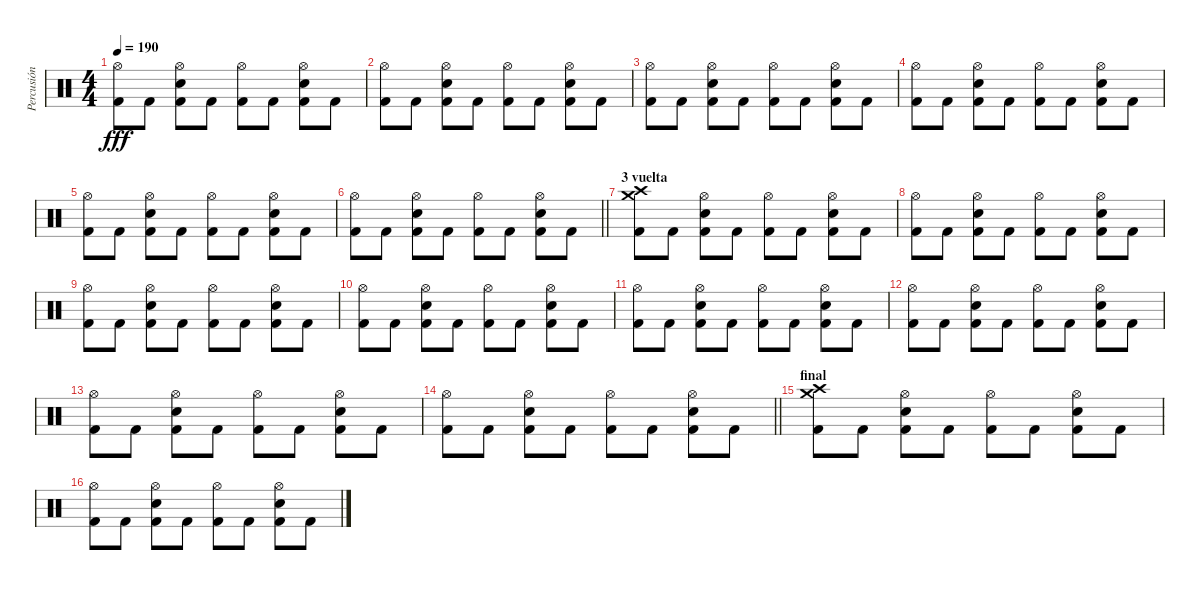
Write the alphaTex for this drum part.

\track ("Percusión" "Percusión") {instrument percussion}
\staff {score}
\articulation defaults
\ts (4 4)
\tempo 190
\clef neutral
\ks c
("Hi-Hat (open)" "Kick (hit) 2").8{dy fff} "Kick (hit) 2".8 ("Hi-Hat (open)" "Electric Snare (hit)" "Kick (hit) 2").8 "Kick (hit) 2".8 ("Hi-Hat (open)" "Kick (hit) 2").8 "Kick (hit) 2".8 ("Hi-Hat (open)" "Electric Snare (hit)" "Kick (hit) 2").8 "Kick (hit) 2".8 |
("Hi-Hat (open)" "Kick (hit) 2").8 "Kick (hit) 2".8 ("Hi-Hat (open)" "Electric Snare (hit)" "Kick (hit) 2").8 "Kick (hit) 2".8 ("Hi-Hat (open)" "Kick (hit) 2").8 "Kick (hit) 2".8 ("Hi-Hat (open)" "Electric Snare (hit)" "Kick (hit) 2").8 "Kick (hit) 2".8 |
("Hi-Hat (open)" "Kick (hit) 2").8 "Kick (hit) 2".8 ("Hi-Hat (open)" "Electric Snare (hit)" "Kick (hit) 2").8 "Kick (hit) 2".8 ("Hi-Hat (open)" "Kick (hit) 2").8 "Kick (hit) 2".8 ("Hi-Hat (open)" "Electric Snare (hit)" "Kick (hit) 2").8 "Kick (hit) 2".8 |
("Hi-Hat (open)" "Kick (hit) 2").8 "Kick (hit) 2".8 ("Hi-Hat (open)" "Electric Snare (hit)" "Kick (hit) 2").8 "Kick (hit) 2".8 ("Hi-Hat (open)" "Kick (hit) 2").8 "Kick (hit) 2".8 ("Hi-Hat (open)" "Electric Snare (hit)" "Kick (hit) 2").8 "Kick (hit) 2".8 |
("Hi-Hat (open)" "Kick (hit) 2").8 "Kick (hit) 2".8 ("Hi-Hat (open)" "Electric Snare (hit)" "Kick (hit) 2").8 "Kick (hit) 2".8 ("Hi-Hat (open)" "Kick (hit) 2").8 "Kick (hit) 2".8 ("Hi-Hat (open)" "Electric Snare (hit)" "Kick (hit) 2").8 "Kick (hit) 2".8 |
\barLineRight lightlight
("Hi-Hat (open)" "Kick (hit) 2").8 "Kick (hit) 2".8 ("Hi-Hat (open)" "Electric Snare (hit)" "Kick (hit) 2").8 "Kick (hit) 2".8 ("Hi-Hat (open)" "Kick (hit) 2").8 "Kick (hit) 2".8 ("Hi-Hat (open)" "Electric Snare (hit)" "Kick (hit) 2").8 "Kick (hit) 2".8 |
\section ("" "3 vuelta")
("Crash high (hit)" "Crash medium (hit)" "Kick (hit) 2").8 "Kick (hit) 2".8 ("Hi-Hat (open)" "Electric Snare (hit)" "Kick (hit) 2").8 "Kick (hit) 2".8 ("Hi-Hat (open)" "Kick (hit) 2").8 "Kick (hit) 2".8 ("Hi-Hat (open)" "Electric Snare (hit)" "Kick (hit) 2").8 "Kick (hit) 2".8 |
("Hi-Hat (open)" "Kick (hit) 2").8 "Kick (hit) 2".8 ("Hi-Hat (open)" "Electric Snare (hit)" "Kick (hit) 2").8 "Kick (hit) 2".8 ("Hi-Hat (open)" "Kick (hit) 2").8 "Kick (hit) 2".8 ("Hi-Hat (open)" "Electric Snare (hit)" "Kick (hit) 2").8 "Kick (hit) 2".8 |
("Hi-Hat (open)" "Kick (hit) 2").8 "Kick (hit) 2".8 ("Hi-Hat (open)" "Electric Snare (hit)" "Kick (hit) 2").8 "Kick (hit) 2".8 ("Hi-Hat (open)" "Kick (hit) 2").8 "Kick (hit) 2".8 ("Hi-Hat (open)" "Electric Snare (hit)" "Kick (hit) 2").8 "Kick (hit) 2".8 |
("Hi-Hat (open)" "Kick (hit) 2").8 "Kick (hit) 2".8 ("Hi-Hat (open)" "Electric Snare (hit)" "Kick (hit) 2").8 "Kick (hit) 2".8 ("Hi-Hat (open)" "Kick (hit) 2").8 "Kick (hit) 2".8 ("Hi-Hat (open)" "Electric Snare (hit)" "Kick (hit) 2").8 "Kick (hit) 2".8 |
("Hi-Hat (open)" "Kick (hit) 2").8 "Kick (hit) 2".8 ("Hi-Hat (open)" "Electric Snare (hit)" "Kick (hit) 2").8 "Kick (hit) 2".8 ("Hi-Hat (open)" "Kick (hit) 2").8 "Kick (hit) 2".8 ("Hi-Hat (open)" "Electric Snare (hit)" "Kick (hit) 2").8 "Kick (hit) 2".8 |
("Hi-Hat (open)" "Kick (hit) 2").8 "Kick (hit) 2".8 ("Hi-Hat (open)" "Electric Snare (hit)" "Kick (hit) 2").8 "Kick (hit) 2".8 ("Hi-Hat (open)" "Kick (hit) 2").8 "Kick (hit) 2".8 ("Hi-Hat (open)" "Electric Snare (hit)" "Kick (hit) 2").8 "Kick (hit) 2".8 |
("Hi-Hat (open)" "Kick (hit) 2").8 "Kick (hit) 2".8 ("Hi-Hat (open)" "Electric Snare (hit)" "Kick (hit) 2").8 "Kick (hit) 2".8 ("Hi-Hat (open)" "Kick (hit) 2").8 "Kick (hit) 2".8 ("Hi-Hat (open)" "Electric Snare (hit)" "Kick (hit) 2").8 "Kick (hit) 2".8 |
\barLineRight lightlight
("Hi-Hat (open)" "Kick (hit) 2").8 "Kick (hit) 2".8 ("Hi-Hat (open)" "Electric Snare (hit)" "Kick (hit) 2").8 "Kick (hit) 2".8 ("Hi-Hat (open)" "Kick (hit) 2").8 "Kick (hit) 2".8 ("Hi-Hat (open)" "Electric Snare (hit)" "Kick (hit) 2").8 "Kick (hit) 2".8 |
\section ("" "final")
("Crash high (hit)" "Crash medium (hit)" "Kick (hit) 2").8 "Kick (hit) 2".8 ("Hi-Hat (open)" "Electric Snare (hit)" "Kick (hit) 2").8 "Kick (hit) 2".8 ("Hi-Hat (open)" "Kick (hit) 2").8 "Kick (hit) 2".8 ("Hi-Hat (open)" "Electric Snare (hit)" "Kick (hit) 2").8 "Kick (hit) 2".8 |
("Hi-Hat (open)" "Kick (hit) 2").8 "Kick (hit) 2".8 ("Hi-Hat (open)" "Electric Snare (hit)" "Kick (hit) 2").8 "Kick (hit) 2".8 ("Hi-Hat (open)" "Kick (hit) 2").8 "Kick (hit) 2".8 ("Hi-Hat (open)" "Electric Snare (hit)" "Kick (hit) 2").8 "Kick (hit) 2".8
